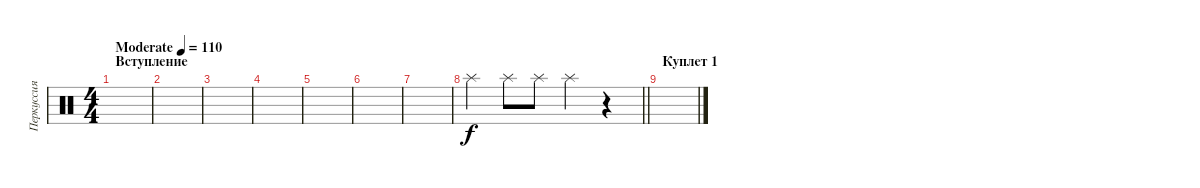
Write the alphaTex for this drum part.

\track ("Перкуссия" "Перкуссия") {instrument percussion}
\staff {score}
\articulation defaults
\ts (4 4)
\section ("" "Вступление")
\tempo (110 "Moderate")
\clef neutral
\ks c
|
|
|
|
|
|
|
\barLineRight lightlight "Splash (hit)".4{balance 0} "Splash (hit)".8{balance 16} "Splash (hit)".8{balance 0} "Splash (hit)".4{balance 16}
r.4 |
\section ("" "Куплет 1")
